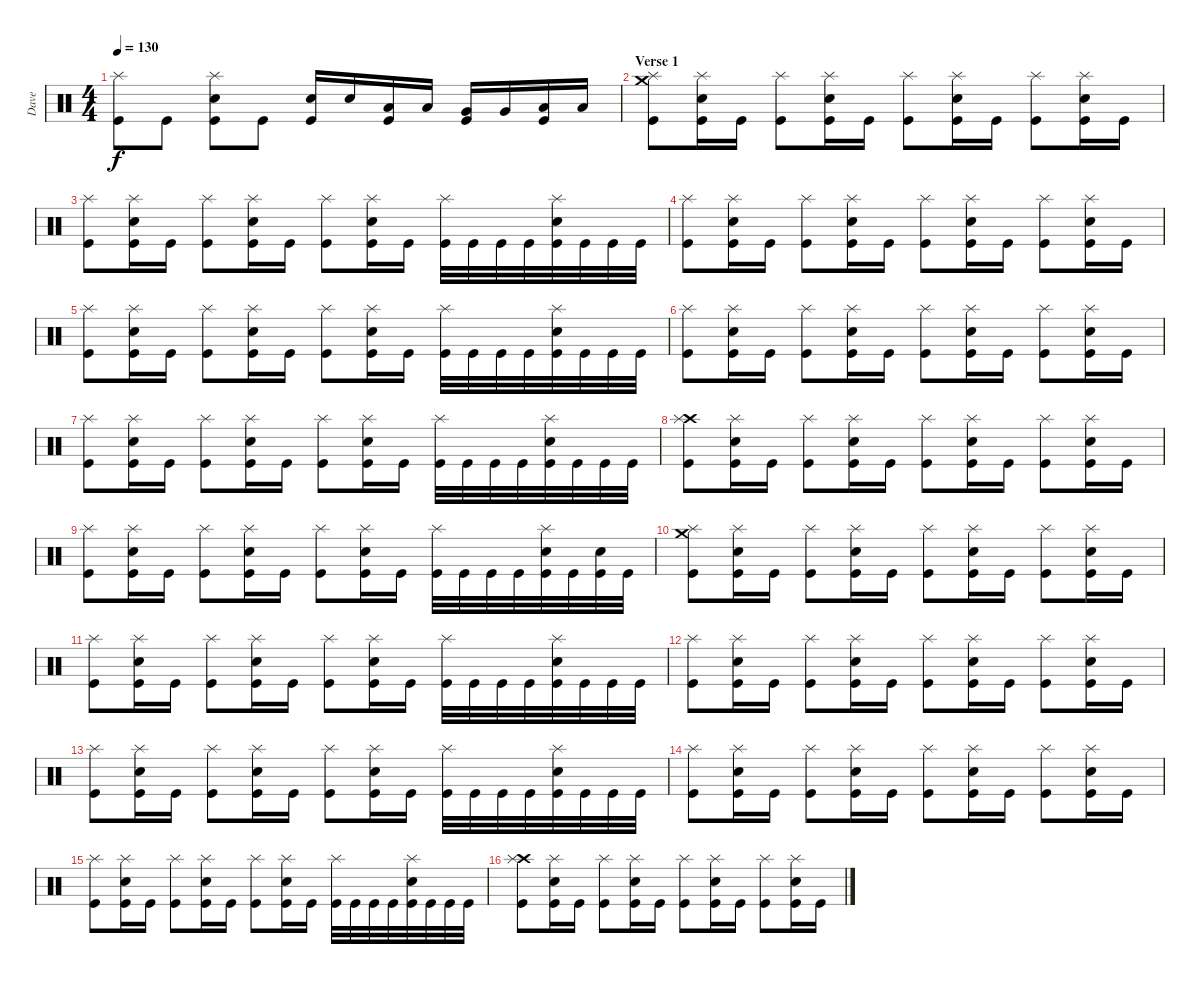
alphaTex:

\track ("Dave" "Dave") {instrument percussion}
\staff {score}
\articulation defaults
\ts (4 4)
\tempo 130
\clef neutral
\ks c
("Splash (hit)" "Kick (hit)").8{dy f} "Kick (hit)".8 ("Splash (hit)" "Electric Snare (hit)" "Kick (hit)").8 "Kick (hit)".8 ("Electric Snare (hit)" "Kick (hit)").16 "Electric Snare (hit)".16 ("Low Tom (hit)" "Kick (hit)").16 "Low Tom (hit)".16 ("Very Low Tom (hit)" "Kick (hit)").16 "Very Low Tom (hit)".16 ("Low Floor Tom (hit)" "Kick (hit)").16 "Low Floor Tom (hit)".16 |
\section ("" "Verse 1")
("Crash medium (hit)" "Splash (hit)" "Kick (hit)").8 ("Splash (hit)" "Electric Snare (hit)" "Kick (hit)").16 "Kick (hit)".16 ("Splash (hit)" "Kick (hit)").8 ("Splash (hit)" "Electric Snare (hit)" "Kick (hit)").16 "Kick (hit)".16 ("Splash (hit)" "Kick (hit)").8 ("Splash (hit)" "Electric Snare (hit)" "Kick (hit)").16 "Kick (hit)".16 ("Splash (hit)" "Kick (hit)").8 ("Splash (hit)" "Electric Snare (hit)" "Kick (hit)").16 "Kick (hit)".16 |
("Splash (hit)" "Kick (hit)").8 ("Splash (hit)" "Electric Snare (hit)" "Kick (hit)").16 "Kick (hit)".16 ("Splash (hit)" "Kick (hit)").8 ("Splash (hit)" "Electric Snare (hit)" "Kick (hit)").16 "Kick (hit)".16 ("Splash (hit)" "Kick (hit)").8 ("Splash (hit)" "Electric Snare (hit)" "Kick (hit)").16 "Kick (hit)".16 ("Splash (hit)" "Kick (hit)").32 "Kick (hit)".32 "Kick (hit)".32 "Kick (hit)".32 ("Splash (hit)" "Electric Snare (hit)" "Kick (hit)").32 "Kick (hit)".32 "Kick (hit)".32 "Kick (hit)".32 |
("Splash (hit)" "Kick (hit)").8 ("Splash (hit)" "Electric Snare (hit)" "Kick (hit)").16 "Kick (hit)".16 ("Splash (hit)" "Kick (hit)").8 ("Splash (hit)" "Electric Snare (hit)" "Kick (hit)").16 "Kick (hit)".16 ("Splash (hit)" "Kick (hit)").8 ("Splash (hit)" "Electric Snare (hit)" "Kick (hit)").16 "Kick (hit)".16 ("Splash (hit)" "Kick (hit)").8 ("Splash (hit)" "Electric Snare (hit)" "Kick (hit)").16 "Kick (hit)".16 |
("Splash (hit)" "Kick (hit)").8 ("Splash (hit)" "Electric Snare (hit)" "Kick (hit)").16 "Kick (hit)".16 ("Splash (hit)" "Kick (hit)").8 ("Splash (hit)" "Electric Snare (hit)" "Kick (hit)").16 "Kick (hit)".16 ("Splash (hit)" "Kick (hit)").8 ("Splash (hit)" "Electric Snare (hit)" "Kick (hit)").16 "Kick (hit)".16 ("Splash (hit)" "Kick (hit)").32 "Kick (hit)".32 "Kick (hit)".32 "Kick (hit)".32 ("Splash (hit)" "Electric Snare (hit)" "Kick (hit)").32 "Kick (hit)".32 "Kick (hit)".32 "Kick (hit)".32 |
("Splash (hit)" "Kick (hit)").8 ("Splash (hit)" "Electric Snare (hit)" "Kick (hit)").16 "Kick (hit)".16 ("Splash (hit)" "Kick (hit)").8 ("Splash (hit)" "Electric Snare (hit)" "Kick (hit)").16 "Kick (hit)".16 ("Splash (hit)" "Kick (hit)").8 ("Splash (hit)" "Electric Snare (hit)" "Kick (hit)").16 "Kick (hit)".16 ("Splash (hit)" "Kick (hit)").8 ("Splash (hit)" "Electric Snare (hit)" "Kick (hit)").16 "Kick (hit)".16 |
("Splash (hit)" "Kick (hit)").8 ("Splash (hit)" "Electric Snare (hit)" "Kick (hit)").16 "Kick (hit)".16 ("Splash (hit)" "Kick (hit)").8 ("Splash (hit)" "Electric Snare (hit)" "Kick (hit)").16 "Kick (hit)".16 ("Splash (hit)" "Kick (hit)").8 ("Splash (hit)" "Electric Snare (hit)" "Kick (hit)").16 "Kick (hit)".16 ("Splash (hit)" "Kick (hit)").32 "Kick (hit)".32 "Kick (hit)".32 "Kick (hit)".32 ("Splash (hit)" "Electric Snare (hit)" "Kick (hit)").32 "Kick (hit)".32 "Kick (hit)".32 "Kick (hit)".32 |
("Crash high (hit)" "Splash (hit)" "Kick (hit)").8 ("Splash (hit)" "Electric Snare (hit)" "Kick (hit)").16 "Kick (hit)".16 ("Splash (hit)" "Kick (hit)").8 ("Splash (hit)" "Electric Snare (hit)" "Kick (hit)").16 "Kick (hit)".16 ("Splash (hit)" "Kick (hit)").8 ("Splash (hit)" "Electric Snare (hit)" "Kick (hit)").16 "Kick (hit)".16 ("Splash (hit)" "Kick (hit)").8 ("Splash (hit)" "Electric Snare (hit)" "Kick (hit)").16 "Kick (hit)".16 |
("Splash (hit)" "Kick (hit)").8 ("Splash (hit)" "Electric Snare (hit)" "Kick (hit)").16 "Kick (hit)".16 ("Splash (hit)" "Kick (hit)").8 ("Splash (hit)" "Electric Snare (hit)" "Kick (hit)").16 "Kick (hit)".16 ("Splash (hit)" "Kick (hit)").8 ("Splash (hit)" "Electric Snare (hit)" "Kick (hit)").16 "Kick (hit)".16 ("Splash (hit)" "Kick (hit)").32 "Kick (hit)".32 "Kick (hit)".32 "Kick (hit)".32 ("Splash (hit)" "Electric Snare (hit)" "Kick (hit)").32 "Kick (hit)".32 ("Electric Snare (hit)" "Kick (hit)").32 "Kick (hit)".32 |
("Crash medium (hit)" "Splash (hit)" "Kick (hit)").8 ("Splash (hit)" "Electric Snare (hit)" "Kick (hit)").16 "Kick (hit)".16 ("Splash (hit)" "Kick (hit)").8 ("Splash (hit)" "Electric Snare (hit)" "Kick (hit)").16 "Kick (hit)".16 ("Splash (hit)" "Kick (hit)").8 ("Splash (hit)" "Electric Snare (hit)" "Kick (hit)").16 "Kick (hit)".16 ("Splash (hit)" "Kick (hit)").8 ("Splash (hit)" "Electric Snare (hit)" "Kick (hit)").16 "Kick (hit)".16 |
("Splash (hit)" "Kick (hit)").8 ("Splash (hit)" "Electric Snare (hit)" "Kick (hit)").16 "Kick (hit)".16 ("Splash (hit)" "Kick (hit)").8 ("Splash (hit)" "Electric Snare (hit)" "Kick (hit)").16 "Kick (hit)".16 ("Splash (hit)" "Kick (hit)").8 ("Splash (hit)" "Electric Snare (hit)" "Kick (hit)").16 "Kick (hit)".16 ("Splash (hit)" "Kick (hit)").32 "Kick (hit)".32 "Kick (hit)".32 "Kick (hit)".32 ("Splash (hit)" "Electric Snare (hit)" "Kick (hit)").32 "Kick (hit)".32 "Kick (hit)".32 "Kick (hit)".32 |
("Splash (hit)" "Kick (hit)").8 ("Splash (hit)" "Electric Snare (hit)" "Kick (hit)").16 "Kick (hit)".16 ("Splash (hit)" "Kick (hit)").8 ("Splash (hit)" "Electric Snare (hit)" "Kick (hit)").16 "Kick (hit)".16 ("Splash (hit)" "Kick (hit)").8 ("Splash (hit)" "Electric Snare (hit)" "Kick (hit)").16 "Kick (hit)".16 ("Splash (hit)" "Kick (hit)").8 ("Splash (hit)" "Electric Snare (hit)" "Kick (hit)").16 "Kick (hit)".16 |
("Splash (hit)" "Kick (hit)").8 ("Splash (hit)" "Electric Snare (hit)" "Kick (hit)").16 "Kick (hit)".16 ("Splash (hit)" "Kick (hit)").8 ("Splash (hit)" "Electric Snare (hit)" "Kick (hit)").16 "Kick (hit)".16 ("Splash (hit)" "Kick (hit)").8 ("Splash (hit)" "Electric Snare (hit)" "Kick (hit)").16 "Kick (hit)".16 ("Splash (hit)" "Kick (hit)").32 "Kick (hit)".32 "Kick (hit)".32 "Kick (hit)".32 ("Splash (hit)" "Electric Snare (hit)" "Kick (hit)").32 "Kick (hit)".32 "Kick (hit)".32 "Kick (hit)".32 |
("Splash (hit)" "Kick (hit)").8 ("Splash (hit)" "Electric Snare (hit)" "Kick (hit)").16 "Kick (hit)".16 ("Splash (hit)" "Kick (hit)").8 ("Splash (hit)" "Electric Snare (hit)" "Kick (hit)").16 "Kick (hit)".16 ("Splash (hit)" "Kick (hit)").8 ("Splash (hit)" "Electric Snare (hit)" "Kick (hit)").16 "Kick (hit)".16 ("Splash (hit)" "Kick (hit)").8 ("Splash (hit)" "Electric Snare (hit)" "Kick (hit)").16 "Kick (hit)".16 |
("Splash (hit)" "Kick (hit)").8 ("Splash (hit)" "Electric Snare (hit)" "Kick (hit)").16 "Kick (hit)".16 ("Splash (hit)" "Kick (hit)").8 ("Splash (hit)" "Electric Snare (hit)" "Kick (hit)").16 "Kick (hit)".16 ("Splash (hit)" "Kick (hit)").8 ("Splash (hit)" "Electric Snare (hit)" "Kick (hit)").16 "Kick (hit)".16 ("Splash (hit)" "Kick (hit)").32 "Kick (hit)".32 "Kick (hit)".32 "Kick (hit)".32 ("Splash (hit)" "Electric Snare (hit)" "Kick (hit)").32 "Kick (hit)".32 "Kick (hit)".32 "Kick (hit)".32 |
("Crash high (hit)" "Splash (hit)" "Kick (hit)").8 ("Splash (hit)" "Electric Snare (hit)" "Kick (hit)").16 "Kick (hit)".16 ("Splash (hit)" "Kick (hit)").8 ("Splash (hit)" "Electric Snare (hit)" "Kick (hit)").16 "Kick (hit)".16 ("Splash (hit)" "Kick (hit)").8 ("Splash (hit)" "Electric Snare (hit)" "Kick (hit)").16 "Kick (hit)".16 ("Splash (hit)" "Kick (hit)").8 ("Splash (hit)" "Electric Snare (hit)" "Kick (hit)").16 "Kick (hit)".16
